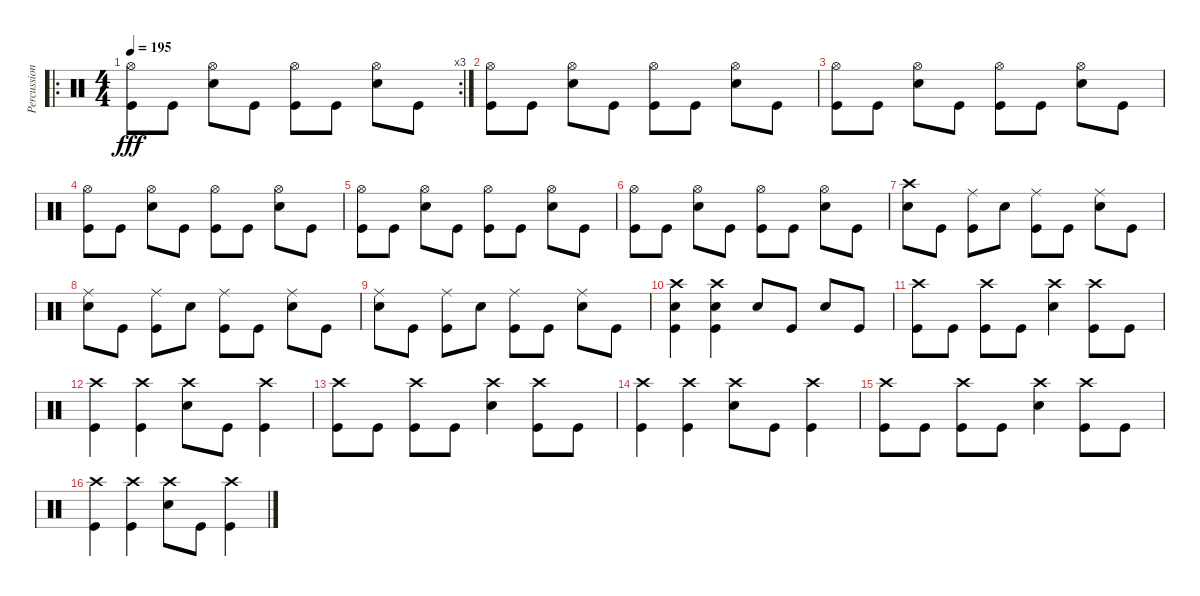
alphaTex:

\track ("Percussions" "Percussion") {instrument percussion}
\staff {score}
\articulation defaults
\ro
\rc 3
\ts (4 4)
\tempo 195
\clef neutral
\ks c
("Hi-Hat (open)" "Kick (hit)").8{dy fff} "Kick (hit)".8 ("Hi-Hat (open)" "Electric Snare (hit)").8 "Kick (hit)".8 ("Hi-Hat (open)" "Kick (hit)").8 "Kick (hit)".8 ("Hi-Hat (open)" "Electric Snare (hit)").8 "Kick (hit)".8 |
("Hi-Hat (open)" "Kick (hit)").8 "Kick (hit)".8 ("Hi-Hat (open)" "Electric Snare (hit)").8 "Kick (hit)".8 ("Hi-Hat (open)" "Kick (hit)").8 "Kick (hit)".8 ("Hi-Hat (open)" "Electric Snare (hit)").8 "Kick (hit)".8 |
("Hi-Hat (open)" "Kick (hit)").8 "Kick (hit)".8 ("Hi-Hat (open)" "Electric Snare (hit)").8 "Kick (hit)".8 ("Hi-Hat (open)" "Kick (hit)").8 "Kick (hit)".8 ("Hi-Hat (open)" "Electric Snare (hit)").8 "Kick (hit)".8 |
("Hi-Hat (open)" "Kick (hit)").8 "Kick (hit)".8 ("Hi-Hat (open)" "Electric Snare (hit)").8 "Kick (hit)".8 ("Hi-Hat (open)" "Kick (hit)").8 "Kick (hit)".8 ("Hi-Hat (open)" "Electric Snare (hit)").8 "Kick (hit)".8 |
("Hi-Hat (open)" "Kick (hit)").8 "Kick (hit)".8 ("Hi-Hat (open)" "Electric Snare (hit)").8 "Kick (hit)".8 ("Hi-Hat (open)" "Kick (hit)").8 "Kick (hit)".8 ("Hi-Hat (open)" "Electric Snare (hit)").8 "Kick (hit)".8 |
("Hi-Hat (open)" "Kick (hit)").8 "Kick (hit)".8 ("Hi-Hat (open)" "Electric Snare (hit)").8 "Kick (hit)".8 ("Hi-Hat (open)" "Kick (hit)").8 "Kick (hit)".8 ("Hi-Hat (open)" "Electric Snare (hit)").8 "Kick (hit)".8 |
("Crash high (hit)" "Electric Snare (hit)").8 "Kick (hit)".8 ("Ride (middle)" "Kick (hit)").8 "Electric Snare (hit)".8 ("Ride (middle)" "Kick (hit)").8 "Kick (hit)".8 ("Ride (middle)" "Electric Snare (hit)").8 "Kick (hit)".8 |
("Ride (middle)" "Electric Snare (hit)").8 "Kick (hit)".8 ("Ride (middle)" "Kick (hit)").8 "Electric Snare (hit)".8 ("Ride (middle)" "Kick (hit)").8 "Kick (hit)".8 ("Ride (middle)" "Electric Snare (hit)").8 "Kick (hit)".8 |
("Ride (middle)" "Electric Snare (hit)").8 "Kick (hit)".8 ("Ride (middle)" "Kick (hit)").8 "Electric Snare (hit)".8 ("Ride (middle)" "Kick (hit)").8 "Kick (hit)".8 ("Ride (middle)" "Electric Snare (hit)").8 "Kick (hit)".8 |
("Crash high (hit)" "Electric Snare (hit)" "Kick (hit)").4 ("Crash high (hit)" "Electric Snare (hit)" "Kick (hit)").4 "Electric Snare (hit)".8 "Kick (hit)".8 "Electric Snare (hit)".8 "Kick (hit)".8 |
("Crash high (hit)" "Kick (hit)").8 "Kick (hit)".8 ("Crash high (hit)" "Kick (hit)").8 "Kick (hit)".8 ("Crash high (hit)" "Electric Snare (hit)").4 ("Crash high (hit)" "Kick (hit)").8 "Kick (hit)".8 |
("Crash high (hit)" "Kick (hit)").4 ("Crash high (hit)" "Kick (hit)").4 ("Crash high (hit)" "Electric Snare (hit)").8 "Kick (hit)".8 ("Crash high (hit)" "Kick (hit)").4 |
("Crash high (hit)" "Kick (hit)").8 "Kick (hit)".8 ("Crash high (hit)" "Kick (hit)").8 "Kick (hit)".8 ("Crash high (hit)" "Electric Snare (hit)").4 ("Crash high (hit)" "Kick (hit)").8 "Kick (hit)".8 |
("Crash high (hit)" "Kick (hit)").4 ("Crash high (hit)" "Kick (hit)").4 ("Crash high (hit)" "Electric Snare (hit)").8 "Kick (hit)".8 ("Crash high (hit)" "Kick (hit)").4 |
("Crash high (hit)" "Kick (hit)").8 "Kick (hit)".8 ("Crash high (hit)" "Kick (hit)").8 "Kick (hit)".8 ("Crash high (hit)" "Electric Snare (hit)").4 ("Crash high (hit)" "Kick (hit)").8 "Kick (hit)".8 |
("Crash high (hit)" "Kick (hit)").4 ("Crash high (hit)" "Kick (hit)").4 ("Crash high (hit)" "Electric Snare (hit)").8 "Kick (hit)".8 ("Crash high (hit)" "Kick (hit)").4
